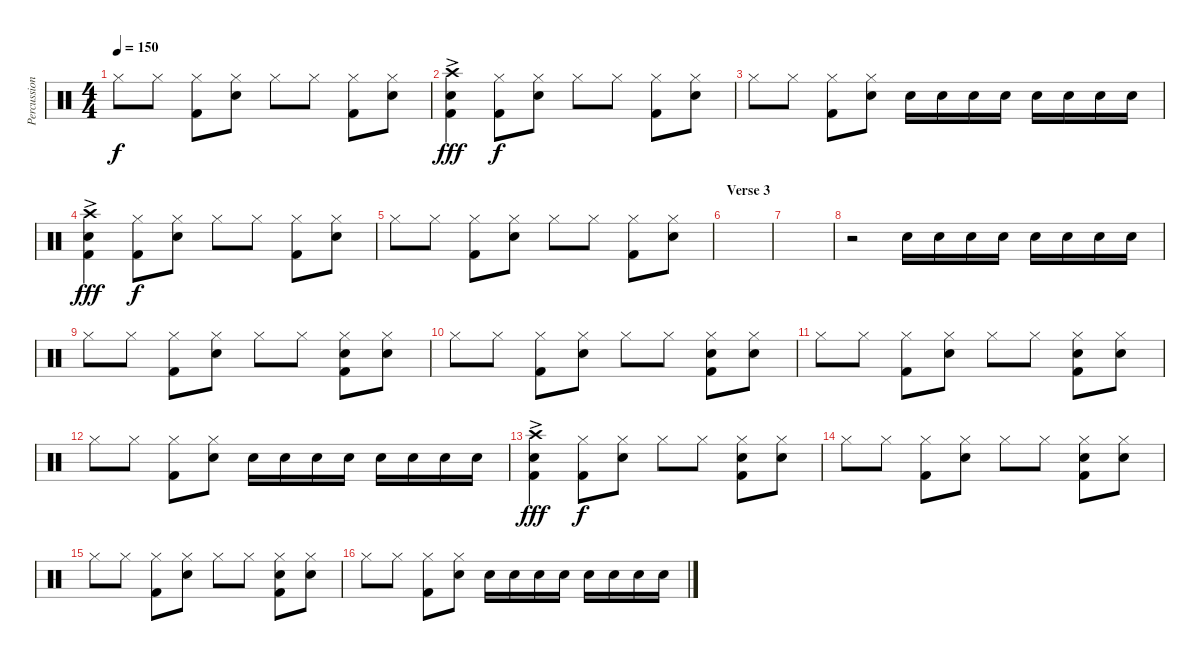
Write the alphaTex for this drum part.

\track ("Percussion" "Percussion") {instrument percussion}
\staff {score}
\articulation defaults
\ts (4 4)
\tempo 150
\clef neutral
\ks c "Hi-Hat (closed)".8{dy f} "Hi-Hat (closed)".8
("Hi-Hat (closed)" "Kick (hit) 2").8 ("Hi-Hat (closed)" "Electric Snare (hit)").8 "Hi-Hat (closed)".8 "Hi-Hat (closed)".8 ("Hi-Hat (closed)" "Kick (hit) 2").8 ("Hi-Hat (closed)" "Electric Snare (hit)").8 |
("Crash high (hit)"{ac} "Kick (hit) 2"{ac} "Electric Snare (hit)"{ac}).4{dy fff} ("Hi-Hat (closed)" "Kick (hit) 2").8{dy f} ("Hi-Hat (closed)" "Electric Snare (hit)").8 "Hi-Hat (closed)".8 "Hi-Hat (closed)".8 ("Hi-Hat (closed)" "Kick (hit) 2").8 ("Hi-Hat (closed)" "Electric Snare (hit)").8 |
"Hi-Hat (closed)".8 "Hi-Hat (closed)".8 ("Hi-Hat (closed)" "Kick (hit) 2").8 ("Hi-Hat (closed)" "Electric Snare (hit)").8 "Electric Snare (hit)".16 "Electric Snare (hit)".16 "Electric Snare (hit)".16 "Electric Snare (hit)".16 "Electric Snare (hit)".16 "Electric Snare (hit)".16 "Electric Snare (hit)".16 "Electric Snare (hit)".16 |
("Crash high (hit)"{ac} "Kick (hit) 2"{ac} "Electric Snare (hit)"{ac}).4{dy fff} ("Hi-Hat (closed)" "Kick (hit) 2").8{dy f} ("Hi-Hat (closed)" "Electric Snare (hit)").8 "Hi-Hat (closed)".8 "Hi-Hat (closed)".8 ("Hi-Hat (closed)" "Kick (hit) 2").8 ("Hi-Hat (closed)" "Electric Snare (hit)").8 |
"Hi-Hat (closed)".8 "Hi-Hat (closed)".8 ("Hi-Hat (closed)" "Kick (hit) 2").8 ("Hi-Hat (closed)" "Electric Snare (hit)").8 "Hi-Hat (closed)".8 "Hi-Hat (closed)".8 ("Hi-Hat (closed)" "Kick (hit) 2").8 ("Hi-Hat (closed)" "Electric Snare (hit)").8 |
\section ("" "Verse 3 ")
|
|
r.2 "Electric Snare (hit)".16 "Electric Snare (hit)".16 "Electric Snare (hit)".16 "Electric Snare (hit)".16 "Electric Snare (hit)".16 "Electric Snare (hit)".16 "Electric Snare (hit)".16 "Electric Snare (hit)".16 |
"Hi-Hat (closed)".8 "Hi-Hat (closed)".8 ("Hi-Hat (closed)" "Kick (hit) 2").8 ("Hi-Hat (closed)" "Electric Snare (hit)").8 "Hi-Hat (closed)".8 "Hi-Hat (closed)".8 ("Hi-Hat (closed)" "Electric Snare (hit)" "Kick (hit) 2").8 ("Hi-Hat (closed)" "Electric Snare (hit)").8 |
"Hi-Hat (closed)".8 "Hi-Hat (closed)".8 ("Hi-Hat (closed)" "Kick (hit) 2").8 ("Hi-Hat (closed)" "Electric Snare (hit)").8 "Hi-Hat (closed)".8 "Hi-Hat (closed)".8 ("Hi-Hat (closed)" "Electric Snare (hit)" "Kick (hit) 2").8 ("Hi-Hat (closed)" "Electric Snare (hit)").8 |
"Hi-Hat (closed)".8 "Hi-Hat (closed)".8 ("Hi-Hat (closed)" "Kick (hit) 2").8 ("Hi-Hat (closed)" "Electric Snare (hit)").8 "Hi-Hat (closed)".8 "Hi-Hat (closed)".8 ("Hi-Hat (closed)" "Electric Snare (hit)" "Kick (hit) 2").8 ("Hi-Hat (closed)" "Electric Snare (hit)").8 |
"Hi-Hat (closed)".8 "Hi-Hat (closed)".8 ("Hi-Hat (closed)" "Kick (hit) 2").8 ("Hi-Hat (closed)" "Electric Snare (hit)").8 "Electric Snare (hit)".16 "Electric Snare (hit)".16 "Electric Snare (hit)".16 "Electric Snare (hit)".16 "Electric Snare (hit)".16 "Electric Snare (hit)".16 "Electric Snare (hit)".16 "Electric Snare (hit)".16 |
("Crash high (hit)"{ac} "Kick (hit) 2"{ac} "Electric Snare (hit)"{ac}).4{dy fff} ("Hi-Hat (closed)" "Kick (hit) 2").8{dy f} ("Hi-Hat (closed)" "Electric Snare (hit)").8 "Hi-Hat (closed)".8 "Hi-Hat (closed)".8 ("Hi-Hat (closed)" "Electric Snare (hit)" "Kick (hit) 2").8 ("Hi-Hat (closed)" "Electric Snare (hit)").8 |
"Hi-Hat (closed)".8 "Hi-Hat (closed)".8 ("Hi-Hat (closed)" "Kick (hit) 2").8 ("Hi-Hat (closed)" "Electric Snare (hit)").8 "Hi-Hat (closed)".8 "Hi-Hat (closed)".8 ("Hi-Hat (closed)" "Electric Snare (hit)" "Kick (hit) 2").8 ("Hi-Hat (closed)" "Electric Snare (hit)").8 |
"Hi-Hat (closed)".8 "Hi-Hat (closed)".8 ("Hi-Hat (closed)" "Kick (hit) 2").8 ("Hi-Hat (closed)" "Electric Snare (hit)").8 "Hi-Hat (closed)".8 "Hi-Hat (closed)".8 ("Hi-Hat (closed)" "Electric Snare (hit)" "Kick (hit) 2").8 ("Hi-Hat (closed)" "Electric Snare (hit)").8 |
"Hi-Hat (closed)".8 "Hi-Hat (closed)".8 ("Hi-Hat (closed)" "Kick (hit) 2").8 ("Hi-Hat (closed)" "Electric Snare (hit)").8 "Electric Snare (hit)".16 "Electric Snare (hit)".16 "Electric Snare (hit)".16 "Electric Snare (hit)".16 "Electric Snare (hit)".16 "Electric Snare (hit)".16 "Electric Snare (hit)".16 "Electric Snare (hit)".16
